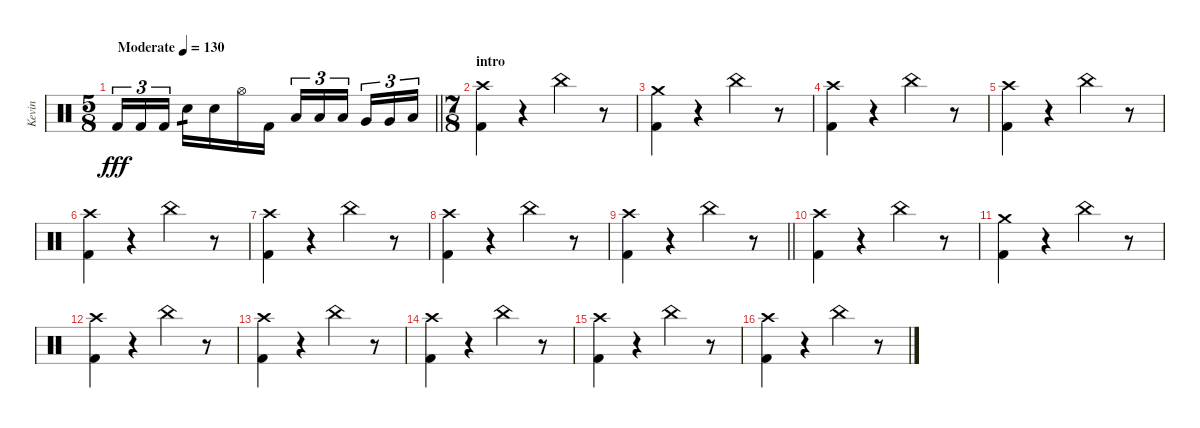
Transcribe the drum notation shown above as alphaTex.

\track ("Kevin" "Kevin") {instrument percussion}
\staff {score}
\articulation defaults
\ts (5 8)
\tempo (130 "Moderate")
\clef neutral
\barLineRight lightlight
\ks c "Kick (hit) 2".16{tu (3 2) dy fff} "Kick (hit) 2".16{tu (3 2)} "Kick (hit) 2".16{tu (3 2)} "Snare (hit) 2".16{tp 1} "Snare (hit) 2".16 "Hi-Hat (open)".16 "Kick (hit) 2".16 "Low Tom (hit)".16{tu (3 2)} "Low Tom (hit)".16{tu (3 2)} "Low Tom (hit)".16{tu (3 2)} "Very Low Tom (hit)".16{tu (3 2)} "Very Low Tom (hit)".16{tu (3 2)} "Low Floor Tom (hit)".16{tu (3 2)}
|
\ts (7 8)
\section ("" "intro")
("Crash high (hit)" "Kick (hit) 2").4 r.4 "China (hit)".4 r.8 |
("Crash medium (hit)" "Kick (hit) 2").4 r.4 "China (hit)".4 r.8 |
("Crash high (hit)" "Kick (hit) 2").4 r.4 "China (hit)".4 r.8 |
("Crash high (hit)" "Kick (hit) 2").4 r.4 "China (hit)".4 r.8 |
("Crash high (hit)" "Kick (hit) 2").4 r.4 "China (hit)".4 r.8 |
("Crash high (hit)" "Kick (hit) 2").4 r.4 "China (hit)".4 r.8 |
("Crash high (hit)" "Kick (hit) 2").4 r.4 "China (hit)".4 r.8 |
\barLineRight lightlight
("Crash high (hit)" "Kick (hit) 2").4 r.4 "China (hit)".4 r.8 |
("Crash high (hit)" "Kick (hit) 2").4 r.4 "China (hit)".4 r.8 |
("Crash medium (hit)" "Kick (hit) 2").4 r.4 "China (hit)".4 r.8 |
("Crash high (hit)" "Kick (hit) 2").4 r.4 "China (hit)".4 r.8 |
("Crash high (hit)" "Kick (hit) 2").4 r.4 "China (hit)".4 r.8 |
("Crash high (hit)" "Kick (hit) 2").4 r.4 "China (hit)".4 r.8 |
("Crash high (hit)" "Kick (hit) 2").4 r.4 "China (hit)".4 r.8 |
("Crash high (hit)" "Kick (hit) 2").4 r.4 "China (hit)".4 r.8
